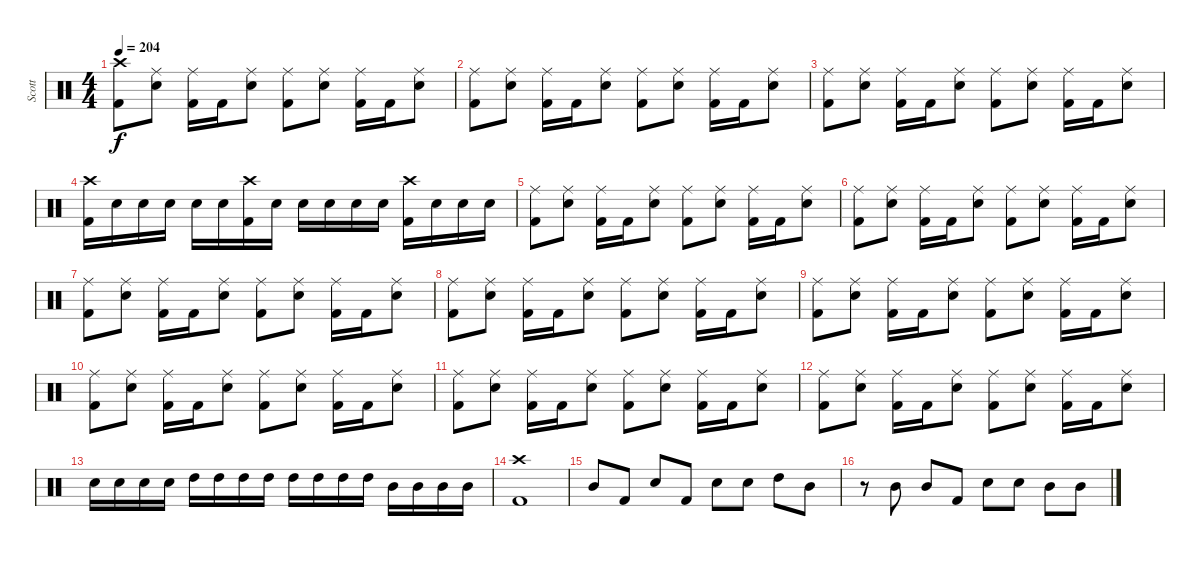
\track ("Scott" "Scott") {instrument percussion}
\staff {score}
\articulation defaults
\ts (4 4)
\tempo 204
\clef neutral
\ks c
("Crash high (hit)" "Kick (hit) 2").8{dy f} ("Ride (middle)" "Snare (hit) 2").8 ("Ride (middle)" "Kick (hit) 2").16 "Kick (hit) 2".16 ("Ride (middle)" "Snare (hit) 2").8 ("Ride (middle)" "Kick (hit) 2").8 ("Ride (middle)" "Snare (hit) 2").8 ("Ride (middle)" "Kick (hit) 2").16 "Kick (hit) 2".16 ("Ride (middle)" "Snare (hit) 2").8 |
("Ride (middle)" "Kick (hit) 2").8 ("Ride (middle)" "Snare (hit) 2").8 ("Ride (middle)" "Kick (hit) 2").16 "Kick (hit) 2".16 ("Ride (middle)" "Snare (hit) 2").8 ("Ride (middle)" "Kick (hit) 2").8 ("Ride (middle)" "Snare (hit) 2").8 ("Ride (middle)" "Kick (hit) 2").16 "Kick (hit) 2".16 ("Ride (middle)" "Snare (hit) 2").8 |
("Ride (middle)" "Kick (hit) 2").8 ("Ride (middle)" "Snare (hit) 2").8 ("Ride (middle)" "Kick (hit) 2").16 "Kick (hit) 2".16 ("Ride (middle)" "Snare (hit) 2").8 ("Ride (middle)" "Kick (hit) 2").8 ("Ride (middle)" "Snare (hit) 2").8 ("Ride (middle)" "Kick (hit) 2").16 "Kick (hit) 2".16 ("Ride (middle)" "Snare (hit) 2").8 |
("Crash high (hit)" "Kick (hit) 2").16 "Snare (hit) 2".16 "Snare (hit) 2".16 "Snare (hit) 2".16 "Snare (hit) 2".16 "Snare (hit) 2".16 ("Crash high (hit)" "Kick (hit) 2").16 "Snare (hit) 2".16 "Snare (hit) 2".16 "Snare (hit) 2".16 "Snare (hit) 2".16 "Snare (hit) 2".16 ("Crash high (hit)" "Kick (hit) 2").16 "Snare (hit) 2".16 "Snare (hit) 2".16 "Snare (hit) 2".16 |
("Ride (middle)" "Kick (hit) 2").8 ("Ride (middle)" "Snare (hit) 2").8 ("Ride (middle)" "Kick (hit) 2").16 "Kick (hit) 2".16 ("Ride (middle)" "Snare (hit) 2").8 ("Ride (middle)" "Kick (hit) 2").8 ("Ride (middle)" "Snare (hit) 2").8 ("Ride (middle)" "Kick (hit) 2").16 "Kick (hit) 2".16 ("Ride (middle)" "Snare (hit) 2").8 |
("Ride (middle)" "Kick (hit) 2").8 ("Ride (middle)" "Snare (hit) 2").8 ("Ride (middle)" "Kick (hit) 2").16 "Kick (hit) 2".16 ("Ride (middle)" "Snare (hit) 2").8 ("Ride (middle)" "Kick (hit) 2").8 ("Ride (middle)" "Snare (hit) 2").8 ("Ride (middle)" "Kick (hit) 2").16 "Kick (hit) 2".16 ("Ride (middle)" "Snare (hit) 2").8 |
("Ride (middle)" "Kick (hit) 2").8 ("Ride (middle)" "Snare (hit) 2").8 ("Ride (middle)" "Kick (hit) 2").16 "Kick (hit) 2".16 ("Ride (middle)" "Snare (hit) 2").8 ("Ride (middle)" "Kick (hit) 2").8 ("Ride (middle)" "Snare (hit) 2").8 ("Ride (middle)" "Kick (hit) 2").16 "Kick (hit) 2".16 ("Ride (middle)" "Snare (hit) 2").8 |
("Ride (middle)" "Kick (hit) 2").8 ("Ride (middle)" "Snare (hit) 2").8 ("Ride (middle)" "Kick (hit) 2").16 "Kick (hit) 2".16 ("Ride (middle)" "Snare (hit) 2").8 ("Ride (middle)" "Kick (hit) 2").8 ("Ride (middle)" "Snare (hit) 2").8 ("Ride (middle)" "Kick (hit) 2").16 "Kick (hit) 2".16 ("Ride (middle)" "Snare (hit) 2").8 |
("Ride (middle)" "Kick (hit) 2").8 ("Ride (middle)" "Snare (hit) 2").8 ("Ride (middle)" "Kick (hit) 2").16 "Kick (hit) 2".16 ("Ride (middle)" "Snare (hit) 2").8 ("Ride (middle)" "Kick (hit) 2").8 ("Ride (middle)" "Snare (hit) 2").8 ("Ride (middle)" "Kick (hit) 2").16 "Kick (hit) 2".16 ("Ride (middle)" "Snare (hit) 2").8 |
("Ride (middle)" "Kick (hit) 2").8 ("Ride (middle)" "Snare (hit) 2").8 ("Ride (middle)" "Kick (hit) 2").16 "Kick (hit) 2".16 ("Ride (middle)" "Snare (hit) 2").8 ("Ride (middle)" "Kick (hit) 2").8 ("Ride (middle)" "Snare (hit) 2").8 ("Ride (middle)" "Kick (hit) 2").16 "Kick (hit) 2".16 ("Ride (middle)" "Snare (hit) 2").8 |
("Ride (middle)" "Kick (hit) 2").8 ("Ride (middle)" "Snare (hit) 2").8 ("Ride (middle)" "Kick (hit) 2").16 "Kick (hit) 2".16 ("Ride (middle)" "Snare (hit) 2").8 ("Ride (middle)" "Kick (hit) 2").8 ("Ride (middle)" "Snare (hit) 2").8 ("Ride (middle)" "Kick (hit) 2").16 "Kick (hit) 2".16 ("Ride (middle)" "Snare (hit) 2").8 |
("Ride (middle)" "Kick (hit) 2").8 ("Ride (middle)" "Snare (hit) 2").8 ("Ride (middle)" "Kick (hit) 2").16 "Kick (hit) 2".16 ("Ride (middle)" "Snare (hit) 2").8 ("Ride (middle)" "Kick (hit) 2").8 ("Ride (middle)" "Snare (hit) 2").8 ("Ride (middle)" "Kick (hit) 2").16 "Kick (hit) 2".16 ("Ride (middle)" "Snare (hit) 2").8 |
"Snare (hit) 2".16 "Snare (hit) 2".16 "Snare (hit) 2".16 "Snare (hit) 2".16 "High Tom (hit)".16 "High Tom (hit)".16 "High Tom (hit)".16 "High Tom (hit)".16 "High Tom (hit)".16 "High Tom (hit)".16 "High Tom (hit)".16 "High Tom (hit)".16 "Mid Tom (hit)".16 "Mid Tom (hit)".16 "Mid Tom (hit)".16 "Mid Tom (hit)".16 |
("Crash high (hit)" "Kick (hit) 2").1 |
"Mid Tom (hit)".8 "Kick (hit) 2".8 "Snare (hit) 2".8 "Kick (hit) 2".8 "Snare (hit) 2".8 "Snare (hit) 2".8 "High Tom (hit)".8 "Mid Tom (hit)".8 |
r.8 "Mid Tom (hit)".8 "Mid Tom (hit)".8 "Kick (hit) 2".8 "Snare (hit) 2".8 "Snare (hit) 2".8 "Mid Tom (hit)".8 "Mid Tom (hit)".8
